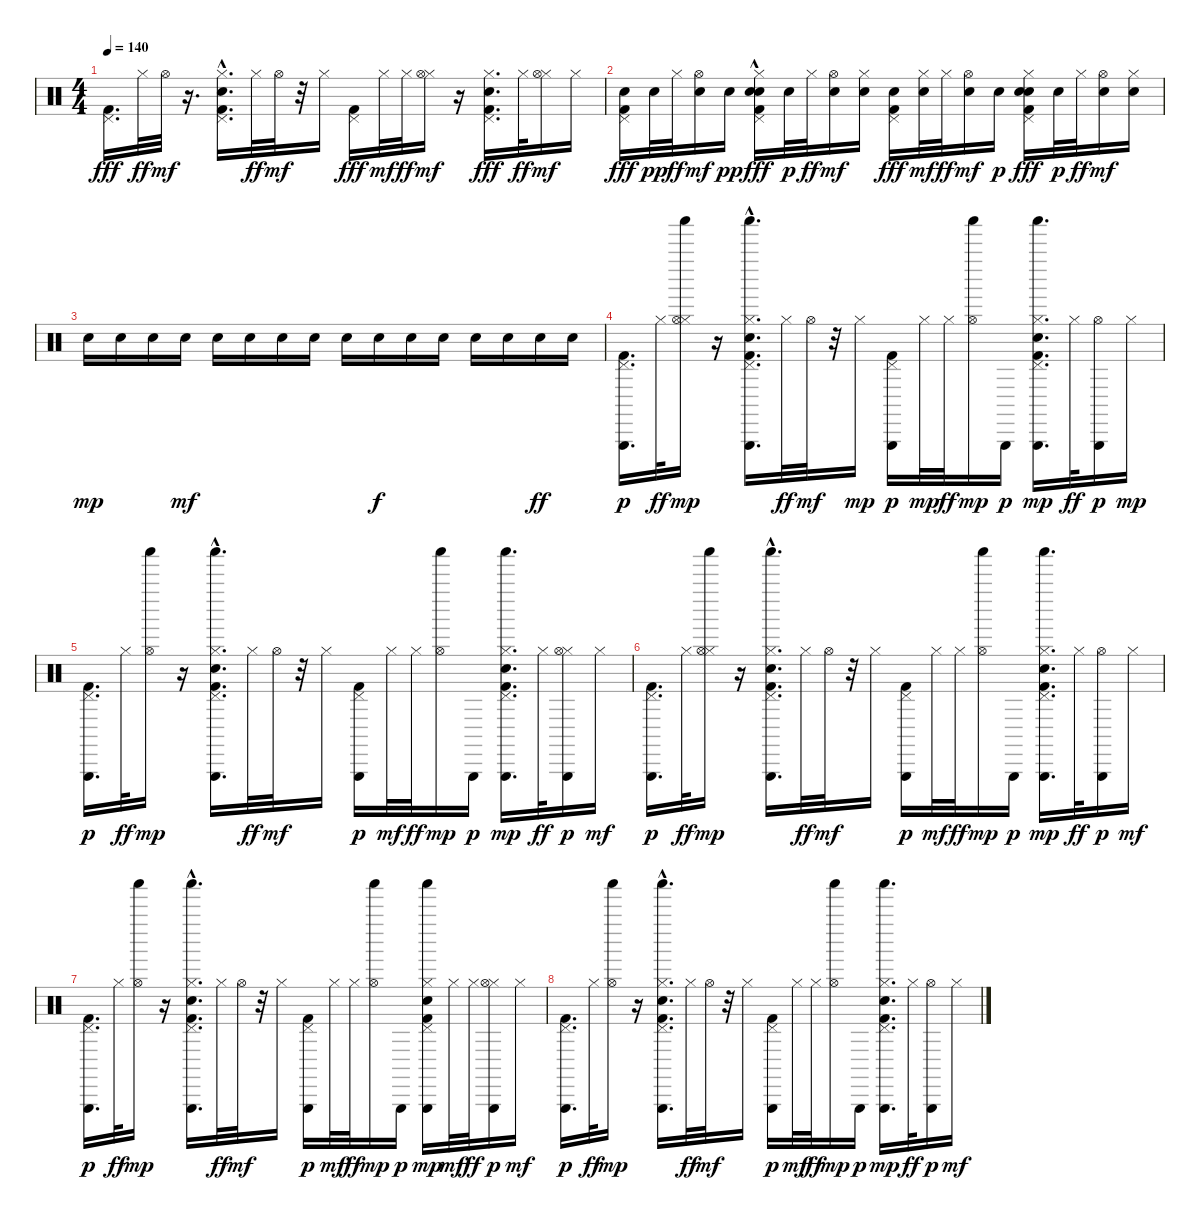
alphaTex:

\track "" {instrument percussion}
\staff {score}
\articulation defaults
\ts (4 4)
\tempo 140
\clef neutral
\ks c
("Pedal Hi-Hat (hit)" "Kick (hit) 2").16{d dy fff} "Hi-Hat (closed)".32{dy ff} "Hi-Hat (open)".32{dy mf} r.16{d} ("Pedal Hi-Hat (hit)" "Kick (hit) 2" "Hi-Hat (closed)" "Hand Clap (hit)"{hac}).16{d} "Hi-Hat (closed)".32{dy ff} "Hi-Hat (open)".32{dy mf} r.32 "Hi-Hat (closed)".16 ("Pedal Hi-Hat (hit)" "Kick (hit) 2").16{dy fff} "Hi-Hat (closed)".32{dy mf} "Hi-Hat (closed)".32{dy ff} ("Hi-Hat (closed)" "Hi-Hat (open)").16{dy mf} r.16 ("Pedal Hi-Hat (hit)" "Hand Clap (hit)" "Hi-Hat (closed)" "Kick (hit) 2").16{d dy fff} "Hi-Hat (closed)".32{dy ff} ("Hi-Hat (closed)" "Hi-Hat (open)").16{dy mf} "Hi-Hat (closed)".16 |
("Snare (hit) 2" "Pedal Hi-Hat (hit)" "Kick (hit) 2").16{dy fff} "Snare (hit) 2".32{dy pp} "Hi-Hat (closed)".32{dy ff} ("Snare (hit) 2" "Hi-Hat (open)").16{dy mf} "Snare (hit) 2".16{dy pp} ("Snare (hit) 2" "Pedal Hi-Hat (hit)" "Hi-Hat (closed)" "Hand Clap (hit)"{hac} "Kick (hit) 2").16{dy fff} "Snare (hit) 2".32{dy p} "Hi-Hat (closed)".32{dy ff} ("Snare (hit) 2" "Hi-Hat (open)").16{dy mf} ("Snare (hit) 2" "Hi-Hat (closed)").16 ("Snare (hit) 2" "Pedal Hi-Hat (hit)" "Kick (hit) 2").16{dy fff} ("Snare (hit) 2" "Hi-Hat (closed)").32{dy mf} "Hi-Hat (closed)".32{dy ff} ("Snare (hit) 2" "Hi-Hat (open)").16{dy mf} "Snare (hit) 2".16{dy p} ("Snare (hit) 2" "Hand Clap (hit)" "Pedal Hi-Hat (hit)" "Hi-Hat (closed)" "Kick (hit) 2").16{dy fff} "Snare (hit) 2".32{dy p} "Hi-Hat (closed)".32{dy ff} ("Snare (hit) 2" "Hi-Hat (open)").16{dy mf} ("Snare (hit) 2" "Hi-Hat (closed)").16 |
"Snare (hit) 2".16{dy mp} "Snare (hit) 2".16 "Snare (hit) 2".16 "Snare (hit) 2".16{dy mf} "Snare (hit) 2".16 "Snare (hit) 2".16 "Snare (hit) 2".16 "Snare (hit) 2".16 "Snare (hit) 2".16 "Snare (hit) 2".16{dy f} "Snare (hit) 2".16 "Snare (hit) 2".16 "Snare (hit) 2".16 "Snare (hit) 2".16 "Snare (hit) 2".16{dy ff} "Snare (hit) 2".16 |
("Kick (hit) 2" "Pedal Hi-Hat (hit)" "Triangle (hit)").16{d dy p} "Hi-Hat (closed)".32{dy ff} ("Hi-Hat (closed)" "Hi-Hat (open)" "Shaker (hit)").16{dy mp} r.16 ("Pedal Hi-Hat (hit)" "Kick (hit) 2" "Hi-Hat (closed)" "Hand Clap (hit)"{hac} "Triangle (hit)" "Shaker (hit)").16{d} "Hi-Hat (closed)".32{dy ff} "Hi-Hat (open)".32{dy mf} r.32 "Hi-Hat (closed)".16{dy mp} ("Pedal Hi-Hat (hit)" "Kick (hit) 2" "Triangle (hit)").16{dy p} "Hi-Hat (closed)".32{dy mp} "Hi-Hat (closed)".32{dy ff} ("Hi-Hat (open)" "Shaker (hit)").16{dy mp} "Triangle (hit)".16{dy p} ("Kick (hit) 2" "Pedal Hi-Hat (hit)" "Hand Clap (hit)" "Hi-Hat (closed)" "Triangle (hit)" "Shaker (hit)").16{d dy mp} "Hi-Hat (closed)".32{dy ff} ("Hi-Hat (open)" "Triangle (hit)").16{dy p} "Hi-Hat (closed)".16{dy mp} |
("Pedal Hi-Hat (hit)" "Kick (hit) 2" "Triangle (hit)").16{d dy p} "Hi-Hat (closed)".32{dy ff} ("Hi-Hat (open)" "Shaker (hit)").16{dy mp} r.16 ("Hi-Hat (closed)" "Hand Clap (hit)"{hac} "Pedal Hi-Hat (hit)" "Kick (hit) 2" "Triangle (hit)" "Shaker (hit)").16{d} "Hi-Hat (closed)".32{dy ff} "Hi-Hat (open)".32{dy mf} r.32 "Hi-Hat (closed)".16 ("Pedal Hi-Hat (hit)" "Kick (hit) 2" "Triangle (hit)").16{dy p} "Hi-Hat (closed)".32{dy mf} "Hi-Hat (closed)".32{dy ff} ("Hi-Hat (open)" "Shaker (hit)").16{dy mp} "Triangle (hit)".16{dy p} ("Hi-Hat (closed)" "Hand Clap (hit)" "Pedal Hi-Hat (hit)" "Kick (hit) 2" "Triangle (hit)" "Shaker (hit)").16{d dy mp} "Hi-Hat (closed)".32{dy ff} ("Hi-Hat (closed)" "Hi-Hat (open)" "Triangle (hit)").16{dy p} "Hi-Hat (closed)".16{dy mf} |
("Pedal Hi-Hat (hit)" "Kick (hit) 2" "Triangle (hit)").16{d dy p} "Hi-Hat (closed)".32{dy ff} ("Hi-Hat (closed)" "Hi-Hat (open)" "Shaker (hit)").16{dy mp} r.16 ("Hi-Hat (closed)" "Kick (hit) 2" "Pedal Hi-Hat (hit)" "Hand Clap (hit)"{hac} "Triangle (hit)" "Shaker (hit)").16{d} "Hi-Hat (closed)".32{dy ff} "Hi-Hat (open)".32{dy mf} r.32 "Hi-Hat (closed)".16 ("Pedal Hi-Hat (hit)" "Kick (hit) 2" "Triangle (hit)").16{dy p} "Hi-Hat (closed)".32{dy mf} "Hi-Hat (closed)".32{dy ff} ("Hi-Hat (open)" "Shaker (hit)").16{dy mp} "Triangle (hit)".16{dy p} ("Hi-Hat (closed)" "Kick (hit) 2" "Pedal Hi-Hat (hit)" "Hand Clap (hit)" "Triangle (hit)" "Shaker (hit)").16{d dy mp} "Hi-Hat (closed)".32{dy ff} ("Hi-Hat (open)" "Triangle (hit)").16{dy p} "Hi-Hat (closed)".16{dy mf} |
("Pedal Hi-Hat (hit)" "Kick (hit) 2" "Triangle (hit)").16{d dy p} "Hi-Hat (closed)".32{dy ff} ("Hi-Hat (open)" "Shaker (hit)").16{dy mp} r.16 ("Hi-Hat (closed)" "Hand Clap (hit)"{hac} "Pedal Hi-Hat (hit)" "Kick (hit) 2" "Triangle (hit)" "Shaker (hit)").16{d} "Hi-Hat (closed)".32{dy ff} "Hi-Hat (open)".32{dy mf} r.32 "Hi-Hat (closed)".16 ("Pedal Hi-Hat (hit)" "Kick (hit) 2" "Triangle (hit)").16{dy p} "Hi-Hat (closed)".32{dy mf} "Hi-Hat (closed)".32{dy ff} ("Hi-Hat (open)" "Shaker (hit)").16{dy mp} "Triangle (hit)".16{dy p} ("Hi-Hat (closed)" "Pedal Hi-Hat (hit)" "Kick (hit) 2" "Hand Clap (hit)" "Triangle (hit)" "Shaker (hit)").16{dy mp} "Hi-Hat (closed)".32{dy mf} "Hi-Hat (closed)".32{dy ff} ("Hi-Hat (closed)" "Hi-Hat (open)" "Triangle (hit)").16{dy p} "Hi-Hat (closed)".16{dy mf} |
("Pedal Hi-Hat (hit)" "Kick (hit) 2" "Triangle (hit)").16{d dy p} "Hi-Hat (closed)".32{dy ff} ("Hi-Hat (open)" "Shaker (hit)").16{dy mp} r.16 ("Pedal Hi-Hat (hit)" "Hand Clap (hit)"{hac} "Hi-Hat (closed)" "Kick (hit) 2" "Triangle (hit)" "Shaker (hit)").16{d} "Hi-Hat (closed)".32{dy ff} "Hi-Hat (open)".32{dy mf} r.32 "Hi-Hat (closed)".16 ("Pedal Hi-Hat (hit)" "Kick (hit) 2" "Triangle (hit)").16{dy p} "Hi-Hat (closed)".32{dy mf} "Hi-Hat (closed)".32{dy ff} ("Hi-Hat (open)" "Shaker (hit)").16{dy mp} "Triangle (hit)".16{dy p} ("Pedal Hi-Hat (hit)" "Hand Clap (hit)" "Hi-Hat (closed)" "Kick (hit) 2" "Triangle (hit)" "Shaker (hit)").16{d dy mp} "Hi-Hat (closed)".32{dy ff} ("Hi-Hat (open)" "Triangle (hit)").16{dy p} "Hi-Hat (closed)".16{dy mf}
